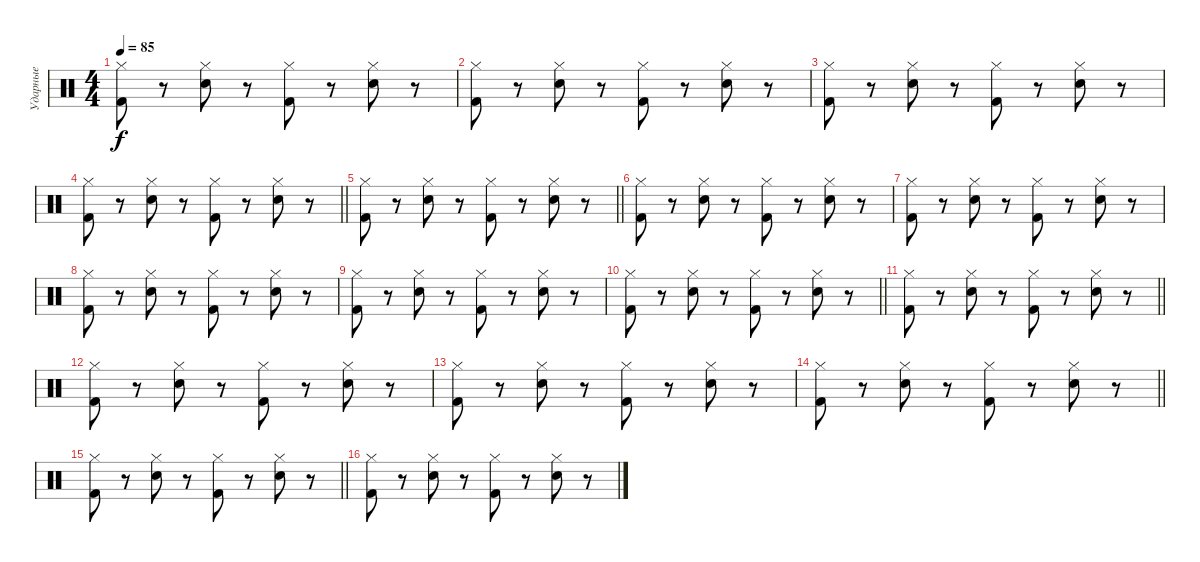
\track ("Ударные" "Ударные") {instrument percussion}
\staff {score}
\articulation defaults
\ts (4 4)
\tempo 85
\clef neutral
\ks c
("Kick (hit) 2" "Hi-Hat (closed)").8{dy f} r.8 ("Electric Snare (hit)" "Hi-Hat (closed)").8 r.8 ("Kick (hit) 2" "Hi-Hat (closed)").8 r.8 ("Electric Snare (hit)" "Hi-Hat (closed)").8 r.8 |
("Kick (hit) 2" "Hi-Hat (closed)").8 r.8 ("Electric Snare (hit)" "Hi-Hat (closed)").8 r.8 ("Kick (hit) 2" "Hi-Hat (closed)").8 r.8 ("Electric Snare (hit)" "Hi-Hat (closed)").8 r.8 |
("Kick (hit) 2" "Hi-Hat (closed)").8 r.8 ("Electric Snare (hit)" "Hi-Hat (closed)").8 r.8 ("Kick (hit) 2" "Hi-Hat (closed)").8 r.8 ("Electric Snare (hit)" "Hi-Hat (closed)").8 r.8 |
\barLineRight lightlight
("Kick (hit) 2" "Hi-Hat (closed)").8 r.8 ("Electric Snare (hit)" "Hi-Hat (closed)").8 r.8 ("Kick (hit) 2" "Hi-Hat (closed)").8 r.8 ("Electric Snare (hit)" "Hi-Hat (closed)").8 r.8 |
\barLineRight lightlight
("Kick (hit) 2" "Hi-Hat (closed)").8 r.8 ("Electric Snare (hit)" "Hi-Hat (closed)").8 r.8 ("Kick (hit) 2" "Hi-Hat (closed)").8 r.8 ("Electric Snare (hit)" "Hi-Hat (closed)").8 r.8 |
("Kick (hit) 2" "Hi-Hat (closed)").8 r.8 ("Electric Snare (hit)" "Hi-Hat (closed)").8 r.8 ("Kick (hit) 2" "Hi-Hat (closed)").8 r.8 ("Electric Snare (hit)" "Hi-Hat (closed)").8 r.8 |
("Kick (hit) 2" "Hi-Hat (closed)").8 r.8 ("Electric Snare (hit)" "Hi-Hat (closed)").8 r.8 ("Kick (hit) 2" "Hi-Hat (closed)").8 r.8 ("Electric Snare (hit)" "Hi-Hat (closed)").8 r.8 |
("Kick (hit) 2" "Hi-Hat (closed)").8 r.8 ("Electric Snare (hit)" "Hi-Hat (closed)").8 r.8 ("Kick (hit) 2" "Hi-Hat (closed)").8 r.8 ("Electric Snare (hit)" "Hi-Hat (closed)").8 r.8 |
("Kick (hit) 2" "Hi-Hat (closed)").8 r.8 ("Electric Snare (hit)" "Hi-Hat (closed)").8 r.8 ("Kick (hit) 2" "Hi-Hat (closed)").8 r.8 ("Electric Snare (hit)" "Hi-Hat (closed)").8 r.8 |
\barLineRight lightlight
("Kick (hit) 2" "Hi-Hat (closed)").8 r.8 ("Electric Snare (hit)" "Hi-Hat (closed)").8 r.8 ("Kick (hit) 2" "Hi-Hat (closed)").8 r.8 ("Electric Snare (hit)" "Hi-Hat (closed)").8 r.8 |
\barLineRight lightlight
("Kick (hit) 2" "Hi-Hat (closed)").8 r.8 ("Electric Snare (hit)" "Hi-Hat (closed)").8 r.8 ("Kick (hit) 2" "Hi-Hat (closed)").8 r.8 ("Electric Snare (hit)" "Hi-Hat (closed)").8 r.8 |
("Kick (hit) 2" "Hi-Hat (closed)").8 r.8 ("Electric Snare (hit)" "Hi-Hat (closed)").8 r.8 ("Kick (hit) 2" "Hi-Hat (closed)").8 r.8 ("Electric Snare (hit)" "Hi-Hat (closed)").8 r.8 |
("Kick (hit) 2" "Hi-Hat (closed)").8 r.8 ("Electric Snare (hit)" "Hi-Hat (closed)").8 r.8 ("Kick (hit) 2" "Hi-Hat (closed)").8 r.8 ("Electric Snare (hit)" "Hi-Hat (closed)").8 r.8 |
\barLineRight lightlight
("Kick (hit) 2" "Hi-Hat (closed)").8 r.8 ("Electric Snare (hit)" "Hi-Hat (closed)").8 r.8 ("Kick (hit) 2" "Hi-Hat (closed)").8 r.8 ("Electric Snare (hit)" "Hi-Hat (closed)").8 r.8 |
\barLineRight lightlight
("Kick (hit) 2" "Hi-Hat (closed)").8 r.8 ("Electric Snare (hit)" "Hi-Hat (closed)").8 r.8 ("Kick (hit) 2" "Hi-Hat (closed)").8 r.8 ("Electric Snare (hit)" "Hi-Hat (closed)").8 r.8 |
("Kick (hit) 2" "Hi-Hat (closed)").8 r.8 ("Electric Snare (hit)" "Hi-Hat (closed)").8 r.8 ("Kick (hit) 2" "Hi-Hat (closed)").8 r.8 ("Electric Snare (hit)" "Hi-Hat (closed)").8 r.8
